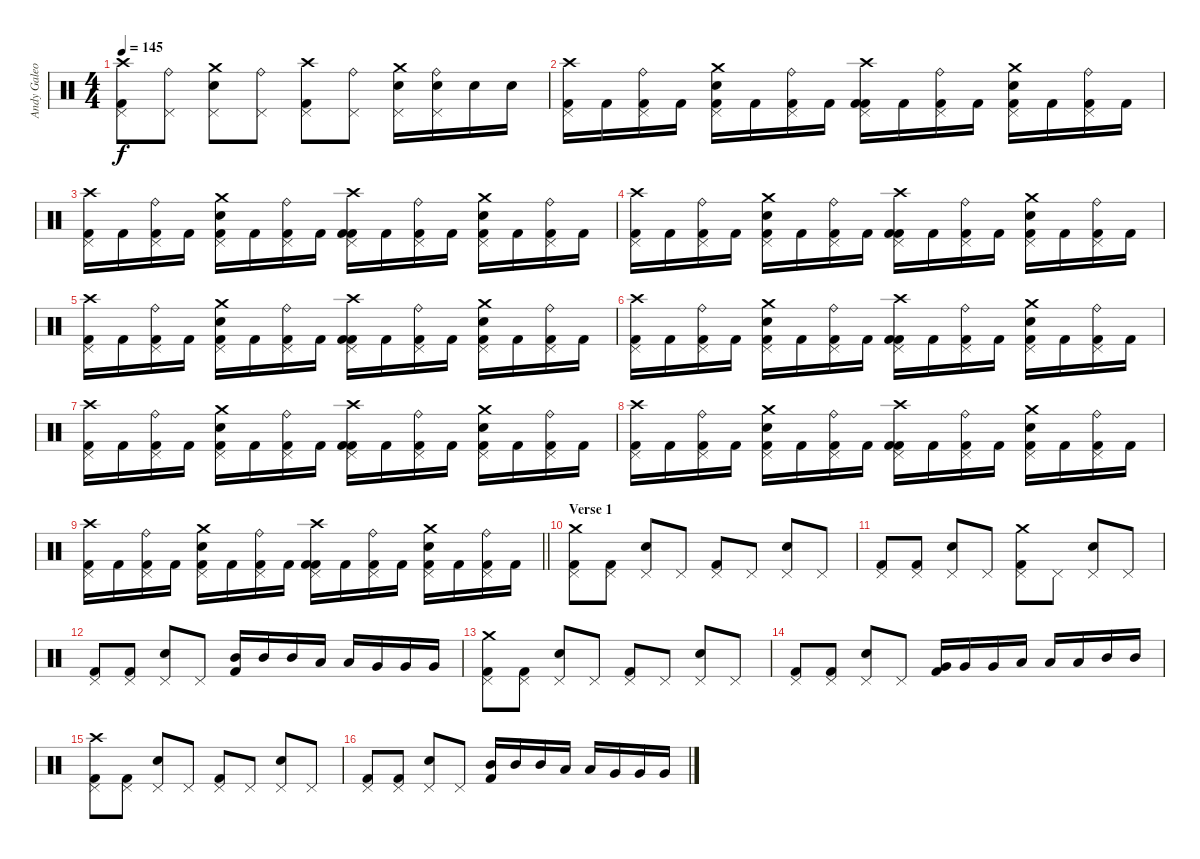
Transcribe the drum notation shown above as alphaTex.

\track ("Andy Galeon" "Andy Galeo") {instrument percussion}
\staff {score}
\articulation defaults
\ts (4 4)
\tempo 145
\clef neutral
\ks c
("Kick (hit) 2" "Pedal Hi-Hat (hit)" "Crash high (hit)").8{dy f} ("Pedal Hi-Hat (hit)" "Ride (bell)").8 ("Electric Snare (hit)" "Pedal Hi-Hat (hit)" "Crash medium (hit)").8 ("Pedal Hi-Hat (hit)" "Ride (bell)").8 ("Kick (hit) 2" "Pedal Hi-Hat (hit)" "Crash high (hit)").8 ("Pedal Hi-Hat (hit)" "Ride (bell)").8 ("Electric Snare (hit)" "Pedal Hi-Hat (hit)" "Crash medium (hit)").16 ("Electric Snare (hit)" "Pedal Hi-Hat (hit)" "Ride (bell)").16 "Electric Snare (hit)".16 "Electric Snare (hit)".16 |
("Kick (hit) 2" "Pedal Hi-Hat (hit)" "Crash high (hit)").16 "Kick (hit) 2".16 ("Kick (hit) 2" "Pedal Hi-Hat (hit)" "Ride (bell)").16 "Kick (hit) 2".16 ("Electric Snare (hit)" "Kick (hit) 2" "Pedal Hi-Hat (hit)" "Crash medium (hit)").16 "Kick (hit) 2".16 ("Kick (hit) 2" "Pedal Hi-Hat (hit)" "Ride (bell)").16 "Kick (hit) 2".16 ("Kick (hit) 2" "Kick (hit) 2" "Pedal Hi-Hat (hit)" "Crash high (hit)").16 "Kick (hit) 2".16 ("Kick (hit) 2" "Pedal Hi-Hat (hit)" "Ride (bell)").16 "Kick (hit) 2".16 ("Electric Snare (hit)" "Kick (hit) 2" "Pedal Hi-Hat (hit)" "Crash medium (hit)").16 "Kick (hit) 2".16 ("Kick (hit) 2" "Pedal Hi-Hat (hit)" "Ride (bell)").16 "Kick (hit) 2".16 |
("Kick (hit) 2" "Pedal Hi-Hat (hit)" "Crash high (hit)").16 "Kick (hit) 2".16 ("Kick (hit) 2" "Pedal Hi-Hat (hit)" "Ride (bell)").16 "Kick (hit) 2".16 ("Electric Snare (hit)" "Kick (hit) 2" "Pedal Hi-Hat (hit)" "Crash medium (hit)").16 "Kick (hit) 2".16 ("Kick (hit) 2" "Pedal Hi-Hat (hit)" "Ride (bell)").16 "Kick (hit) 2".16 ("Kick (hit) 2" "Kick (hit) 2" "Pedal Hi-Hat (hit)" "Crash high (hit)").16 "Kick (hit) 2".16 ("Kick (hit) 2" "Pedal Hi-Hat (hit)" "Ride (bell)").16 "Kick (hit) 2".16 ("Electric Snare (hit)" "Kick (hit) 2" "Pedal Hi-Hat (hit)" "Crash medium (hit)").16 "Kick (hit) 2".16 ("Kick (hit) 2" "Pedal Hi-Hat (hit)" "Ride (bell)").16 "Kick (hit) 2".16 |
("Kick (hit) 2" "Pedal Hi-Hat (hit)" "Crash high (hit)").16 "Kick (hit) 2".16 ("Kick (hit) 2" "Pedal Hi-Hat (hit)" "Ride (bell)").16 "Kick (hit) 2".16 ("Electric Snare (hit)" "Kick (hit) 2" "Pedal Hi-Hat (hit)" "Crash medium (hit)").16 "Kick (hit) 2".16 ("Kick (hit) 2" "Pedal Hi-Hat (hit)" "Ride (bell)").16 "Kick (hit) 2".16 ("Kick (hit) 2" "Kick (hit) 2" "Pedal Hi-Hat (hit)" "Crash high (hit)").16 "Kick (hit) 2".16 ("Kick (hit) 2" "Pedal Hi-Hat (hit)" "Ride (bell)").16 "Kick (hit) 2".16 ("Electric Snare (hit)" "Kick (hit) 2" "Pedal Hi-Hat (hit)" "Crash medium (hit)").16 "Kick (hit) 2".16 ("Kick (hit) 2" "Pedal Hi-Hat (hit)" "Ride (bell)").16 "Kick (hit) 2".16 |
("Kick (hit) 2" "Pedal Hi-Hat (hit)" "Crash high (hit)").16 "Kick (hit) 2".16 ("Kick (hit) 2" "Pedal Hi-Hat (hit)" "Ride (bell)").16 "Kick (hit) 2".16 ("Electric Snare (hit)" "Kick (hit) 2" "Pedal Hi-Hat (hit)" "Crash medium (hit)").16 "Kick (hit) 2".16 ("Kick (hit) 2" "Pedal Hi-Hat (hit)" "Ride (bell)").16 "Kick (hit) 2".16 ("Kick (hit) 2" "Kick (hit) 2" "Pedal Hi-Hat (hit)" "Crash high (hit)").16 "Kick (hit) 2".16 ("Kick (hit) 2" "Pedal Hi-Hat (hit)" "Ride (bell)").16 "Kick (hit) 2".16 ("Electric Snare (hit)" "Kick (hit) 2" "Pedal Hi-Hat (hit)" "Crash medium (hit)").16 "Kick (hit) 2".16 ("Kick (hit) 2" "Pedal Hi-Hat (hit)" "Ride (bell)").16 "Kick (hit) 2".16 |
("Kick (hit) 2" "Pedal Hi-Hat (hit)" "Crash high (hit)").16 "Kick (hit) 2".16 ("Kick (hit) 2" "Pedal Hi-Hat (hit)" "Ride (bell)").16 "Kick (hit) 2".16 ("Electric Snare (hit)" "Kick (hit) 2" "Pedal Hi-Hat (hit)" "Crash medium (hit)").16 "Kick (hit) 2".16 ("Kick (hit) 2" "Pedal Hi-Hat (hit)" "Ride (bell)").16 "Kick (hit) 2".16 ("Kick (hit) 2" "Kick (hit) 2" "Pedal Hi-Hat (hit)" "Crash high (hit)").16 "Kick (hit) 2".16 ("Kick (hit) 2" "Pedal Hi-Hat (hit)" "Ride (bell)").16 "Kick (hit) 2".16 ("Electric Snare (hit)" "Kick (hit) 2" "Pedal Hi-Hat (hit)" "Crash medium (hit)").16 "Kick (hit) 2".16 ("Kick (hit) 2" "Pedal Hi-Hat (hit)" "Ride (bell)").16 "Kick (hit) 2".16 |
("Kick (hit) 2" "Pedal Hi-Hat (hit)" "Crash high (hit)").16 "Kick (hit) 2".16 ("Kick (hit) 2" "Pedal Hi-Hat (hit)" "Ride (bell)").16 "Kick (hit) 2".16 ("Electric Snare (hit)" "Kick (hit) 2" "Pedal Hi-Hat (hit)" "Crash medium (hit)").16 "Kick (hit) 2".16 ("Kick (hit) 2" "Pedal Hi-Hat (hit)" "Ride (bell)").16 "Kick (hit) 2".16 ("Kick (hit) 2" "Kick (hit) 2" "Pedal Hi-Hat (hit)" "Crash high (hit)").16 "Kick (hit) 2".16 ("Kick (hit) 2" "Pedal Hi-Hat (hit)" "Ride (bell)").16 "Kick (hit) 2".16 ("Electric Snare (hit)" "Kick (hit) 2" "Pedal Hi-Hat (hit)" "Crash medium (hit)").16 "Kick (hit) 2".16 ("Kick (hit) 2" "Pedal Hi-Hat (hit)" "Ride (bell)").16 "Kick (hit) 2".16 |
("Kick (hit) 2" "Pedal Hi-Hat (hit)" "Crash high (hit)").16 "Kick (hit) 2".16 ("Kick (hit) 2" "Pedal Hi-Hat (hit)" "Ride (bell)").16 "Kick (hit) 2".16 ("Electric Snare (hit)" "Kick (hit) 2" "Pedal Hi-Hat (hit)" "Crash medium (hit)").16 "Kick (hit) 2".16 ("Kick (hit) 2" "Pedal Hi-Hat (hit)" "Ride (bell)").16 "Kick (hit) 2".16 ("Kick (hit) 2" "Kick (hit) 2" "Pedal Hi-Hat (hit)" "Crash high (hit)").16 "Kick (hit) 2".16 ("Kick (hit) 2" "Pedal Hi-Hat (hit)" "Ride (bell)").16 "Kick (hit) 2".16 ("Electric Snare (hit)" "Kick (hit) 2" "Pedal Hi-Hat (hit)" "Crash medium (hit)").16 "Kick (hit) 2".16 ("Kick (hit) 2" "Pedal Hi-Hat (hit)" "Ride (bell)").16 "Kick (hit) 2".16 |
\barLineRight lightlight
("Kick (hit) 2" "Pedal Hi-Hat (hit)" "Crash high (hit)").16 "Kick (hit) 2".16 ("Kick (hit) 2" "Pedal Hi-Hat (hit)" "Ride (bell)").16 "Kick (hit) 2".16 ("Electric Snare (hit)" "Kick (hit) 2" "Pedal Hi-Hat (hit)" "Crash medium (hit)").16 "Kick (hit) 2".16 ("Kick (hit) 2" "Pedal Hi-Hat (hit)" "Ride (bell)").16 "Kick (hit) 2".16 ("Kick (hit) 2" "Kick (hit) 2" "Pedal Hi-Hat (hit)" "Crash high (hit)").16 "Kick (hit) 2".16 ("Kick (hit) 2" "Pedal Hi-Hat (hit)" "Ride (bell)").16 "Kick (hit) 2".16 ("Electric Snare (hit)" "Kick (hit) 2" "Pedal Hi-Hat (hit)" "Crash medium (hit)").16 "Kick (hit) 2".16 ("Kick (hit) 2" "Pedal Hi-Hat (hit)" "Ride (bell)").16 "Kick (hit) 2".16 |
\section ("" "Verse 1")
("Kick (hit) 2" "Pedal Hi-Hat (hit)" "Crash medium (hit)").8 ("Kick (hit) 2" "Pedal Hi-Hat (hit)").8 ("Electric Snare (hit)" "Pedal Hi-Hat (hit)").8 "Pedal Hi-Hat (hit)".8 ("Kick (hit) 2" "Pedal Hi-Hat (hit)").8 "Pedal Hi-Hat (hit)".8 ("Electric Snare (hit)" "Pedal Hi-Hat (hit)").8 "Pedal Hi-Hat (hit)".8 |
("Kick (hit) 2" "Pedal Hi-Hat (hit)").8 ("Kick (hit) 2" "Pedal Hi-Hat (hit)").8 ("Electric Snare (hit)" "Pedal Hi-Hat (hit)").8 "Pedal Hi-Hat (hit)".8 ("Kick (hit) 2" "Pedal Hi-Hat (hit)" "Crash medium (hit)").8 "Pedal Hi-Hat (hit)".8 ("Electric Snare (hit)" "Pedal Hi-Hat (hit)").8 "Pedal Hi-Hat (hit)".8 |
("Kick (hit) 2" "Pedal Hi-Hat (hit)").8 ("Kick (hit) 2" "Pedal Hi-Hat (hit)").8 ("Electric Snare (hit)" "Pedal Hi-Hat (hit)").8 "Pedal Hi-Hat (hit)".8 ("Kick (hit) 2" "Mid Tom (hit)").16 "Mid Tom (hit)".16 "Mid Tom (hit)".16 "Low Tom (hit)".16 "Low Tom (hit)".16 "Very Low Tom (hit)".16 "Very Low Tom (hit)".16 "Very Low Tom (hit)".16 |
("Kick (hit) 2" "Pedal Hi-Hat (hit)" "Crash medium (hit)").8 ("Kick (hit) 2" "Pedal Hi-Hat (hit)").8 ("Electric Snare (hit)" "Pedal Hi-Hat (hit)").8 "Pedal Hi-Hat (hit)".8 ("Kick (hit) 2" "Pedal Hi-Hat (hit)").8 "Pedal Hi-Hat (hit)".8 ("Electric Snare (hit)" "Pedal Hi-Hat (hit)").8 "Pedal Hi-Hat (hit)".8 |
("Kick (hit) 2" "Pedal Hi-Hat (hit)").8 ("Kick (hit) 2" "Pedal Hi-Hat (hit)").8 ("Electric Snare (hit)" "Pedal Hi-Hat (hit)").8 "Pedal Hi-Hat (hit)".8 ("Kick (hit) 2" "Very Low Tom (hit)").16 "Very Low Tom (hit)".16 "Very Low Tom (hit)".16 "Low Tom (hit)".16 "Low Tom (hit)".16 "Low Tom (hit)".16 "Mid Tom (hit)".16 "Mid Tom (hit)".16 |
("Kick (hit) 2" "Pedal Hi-Hat (hit)" "Crash high (hit)").8 ("Kick (hit) 2" "Pedal Hi-Hat (hit)").8 ("Electric Snare (hit)" "Pedal Hi-Hat (hit)").8 "Pedal Hi-Hat (hit)".8 ("Kick (hit) 2" "Pedal Hi-Hat (hit)").8 "Pedal Hi-Hat (hit)".8 ("Electric Snare (hit)" "Pedal Hi-Hat (hit)").8 "Pedal Hi-Hat (hit)".8 |
("Kick (hit) 2" "Pedal Hi-Hat (hit)").8 ("Kick (hit) 2" "Pedal Hi-Hat (hit)").8 ("Electric Snare (hit)" "Pedal Hi-Hat (hit)").8 "Pedal Hi-Hat (hit)".8 ("Kick (hit) 2" "Mid Tom (hit)").16 "Mid Tom (hit)".16 "Mid Tom (hit)".16 "Low Tom (hit)".16 "Low Tom (hit)".16 "Very Low Tom (hit)".16 "Very Low Tom (hit)".16 "Very Low Tom (hit)".16
